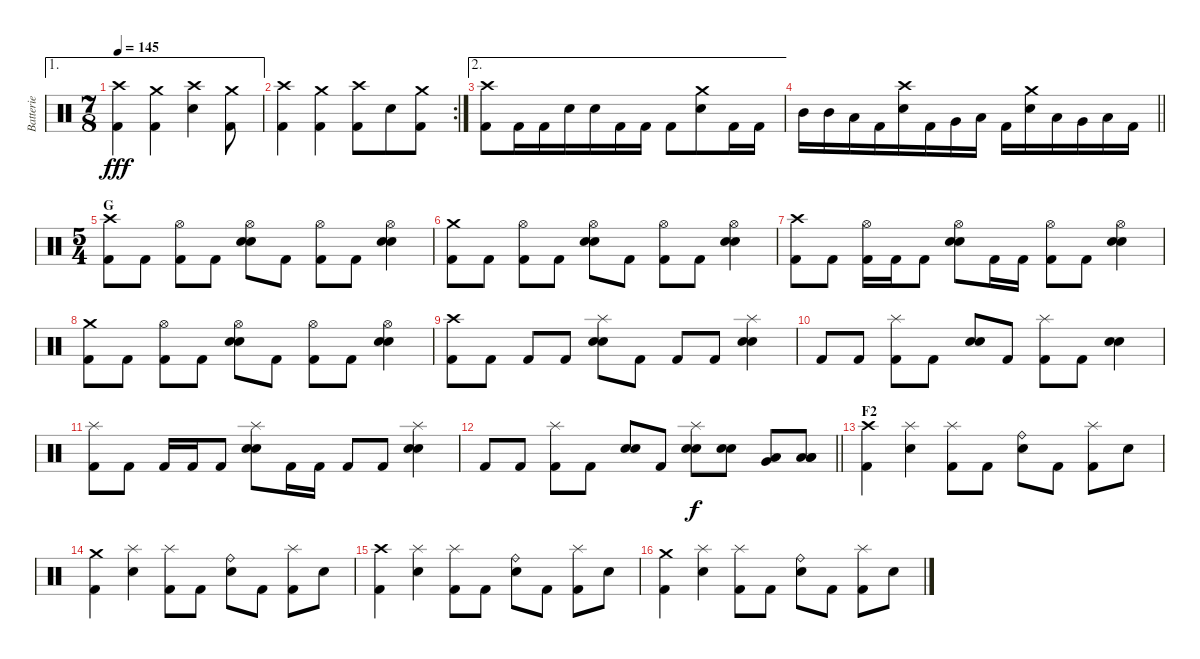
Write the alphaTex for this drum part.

\track ("Batterie" "Batterie") {instrument percussion}
\staff {score}
\articulation defaults
\ae 1
\ts (7 8)
\tempo 145
\clef neutral
\ks c
("Crash high (hit)" "Kick (hit) 2").4{dy fff} ("Crash medium (hit)" "Kick (hit) 2").4 ("Crash high (hit)" "Electric Snare (hit)").4 ("Crash medium (hit)" "Kick (hit) 2").8 |
\rc 2
("Crash high (hit)" "Kick (hit) 2").4 ("Crash medium (hit)" "Kick (hit) 2").4 ("Crash high (hit)" "Kick (hit) 2").8 "Electric Snare (hit)".8 ("Crash medium (hit)" "Kick (hit) 2").8 |
\ae 2
("Crash high (hit)" "Kick (hit) 2").8 "Kick (hit) 2".16 "Kick (hit) 2".16 "Electric Snare (hit)".16 "Electric Snare (hit)".16 "Kick (hit) 2".16 "Kick (hit) 2".16 "Kick (hit) 2".8 ("Crash medium (hit)" "Electric Snare (hit)").8 "Kick (hit) 2".16 "Kick (hit) 2".16 |
\barLineRight lightlight "Mid Tom (hit)".16 "Mid Tom (hit)".16 "Low Tom (hit)".16 "Kick (hit) 2".16
("Electric Snare (hit)" "Crash high (hit)").16 "Kick (hit) 2".16 "Very Low Tom (hit)".16 "Low Floor Tom (hit)".16 "Kick (hit) 2".16 ("Electric Snare (hit)" "Crash medium (hit)").16 "Low Tom (hit)".16 "Very Low Tom (hit)".16 "Low Floor Tom (hit)".16 "Kick (hit) 2".16 |
\ts (5 4)
\section ("" "G")
("Crash high (hit)" "Kick (hit) 2").8{volume 16} "Kick (hit) 2".8 ("Hi-Hat (open)" "Kick (hit) 2").8 "Kick (hit) 2".8 ("Hi-Hat (open)" "Electric Snare (hit)" "Electric Snare (hit)").8 "Kick (hit) 2".8 ("Hi-Hat (open)" "Kick (hit) 2").8 "Kick (hit) 2".8 ("Hi-Hat (open)" "Electric Snare (hit)" "Electric Snare (hit)").4 |
("Crash medium (hit)" "Kick (hit) 2").8 "Kick (hit) 2".8 ("Hi-Hat (open)" "Kick (hit) 2").8 "Kick (hit) 2".8 ("Hi-Hat (open)" "Electric Snare (hit)" "Electric Snare (hit)").8 "Kick (hit) 2".8 ("Hi-Hat (open)" "Kick (hit) 2").8 "Kick (hit) 2".8 ("Hi-Hat (open)" "Electric Snare (hit)" "Electric Snare (hit)").4 |
("Crash high (hit)" "Kick (hit) 2").8 "Kick (hit) 2".8 ("Hi-Hat (open)" "Kick (hit) 2").16 "Kick (hit) 2".16 "Kick (hit) 2".8 ("Hi-Hat (open)" "Electric Snare (hit)" "Electric Snare (hit)").8 "Kick (hit) 2".16 "Kick (hit) 2".16 ("Hi-Hat (open)" "Kick (hit) 2").8 "Kick (hit) 2".8 ("Hi-Hat (open)" "Electric Snare (hit)" "Electric Snare (hit)").4 |
("Crash medium (hit)" "Kick (hit) 2").8 "Kick (hit) 2".8 ("Hi-Hat (open)" "Kick (hit) 2").8 "Kick (hit) 2".8 ("Hi-Hat (open)" "Electric Snare (hit)" "Electric Snare (hit)").8 "Kick (hit) 2".8 ("Hi-Hat (open)" "Kick (hit) 2").8 "Kick (hit) 2".8 ("Hi-Hat (open)" "Electric Snare (hit)" "Electric Snare (hit)").4 |
("Crash high (hit)" "Kick (hit) 2").8 "Kick (hit) 2".8 "Kick (hit) 2".8 "Kick (hit) 2".8 ("Splash (hit)" "Electric Snare (hit)" "Electric Snare (hit)").8 "Kick (hit) 2".8 "Kick (hit) 2".8 "Kick (hit) 2".8 ("Splash (hit)" "Electric Snare (hit)" "Electric Snare (hit)").4 |
"Kick (hit) 2".8 "Kick (hit) 2".8 ("Splash (hit)" "Kick (hit) 2").8 "Kick (hit) 2".8 ("Electric Snare (hit)" "Electric Snare (hit)").8 "Kick (hit) 2".8 ("Splash (hit)" "Kick (hit) 2").8 "Kick (hit) 2".8 ("Electric Snare (hit)" "Electric Snare (hit)").4 |
("Splash (hit)" "Kick (hit) 2").8 "Kick (hit) 2".8 "Kick (hit) 2".16 "Kick (hit) 2".16 "Kick (hit) 2".8 ("Splash (hit)" "Electric Snare (hit)" "Electric Snare (hit)").8 "Kick (hit) 2".16 "Kick (hit) 2".16 "Kick (hit) 2".8 "Kick (hit) 2".8 ("Splash (hit)" "Electric Snare (hit)" "Electric Snare (hit)").4 |
\barLineRight lightlight "Kick (hit) 2".8 "Kick (hit) 2".8
("Splash (hit)" "Kick (hit) 2").8 "Kick (hit) 2".8 ("Electric Snare (hit)" "Electric Snare (hit)").8 "Kick (hit) 2".8 ("Splash (hit)" "Electric Snare (hit)" "Electric Snare (hit)").8{dy f} ("Electric Snare (hit)" "Electric Snare (hit)").8 ("Very Low Tom (hit)" "Low Floor Tom (hit)").8 ("Low Tom (hit)" "Low Floor Tom (hit)" "Low Floor Tom (hit)").8 |
\section ("" "F2")
("Crash high (hit)" "Kick (hit) 2").4 ("Splash (hit)" "Electric Snare (hit)").4 ("Splash (hit)" "Kick (hit) 2").8 "Kick (hit) 2".8 ("Ride (bell)" "Electric Snare (hit)").8 "Kick (hit) 2".8 ("Splash (hit)" "Kick (hit) 2").8 "Electric Snare (hit)".8 |
("Crash medium (hit)" "Kick (hit) 2").4 ("Splash (hit)" "Electric Snare (hit)").4 ("Splash (hit)" "Kick (hit) 2").8 "Kick (hit) 2".8 ("Ride (bell)" "Electric Snare (hit)").8 "Kick (hit) 2".8 ("Splash (hit)" "Kick (hit) 2").8 "Electric Snare (hit)".8 |
("Crash high (hit)" "Kick (hit) 2").4 ("Splash (hit)" "Electric Snare (hit)").4 ("Splash (hit)" "Kick (hit) 2").8 "Kick (hit) 2".8 ("Ride (bell)" "Electric Snare (hit)").8 "Kick (hit) 2".8 ("Splash (hit)" "Kick (hit) 2").8 "Electric Snare (hit)".8 |
("Crash medium (hit)" "Kick (hit) 2").4 ("Splash (hit)" "Electric Snare (hit)").4 ("Splash (hit)" "Kick (hit) 2").8 "Kick (hit) 2".8 ("Ride (bell)" "Electric Snare (hit)").8 "Kick (hit) 2".8 ("Splash (hit)" "Kick (hit) 2").8 "Electric Snare (hit)".8
